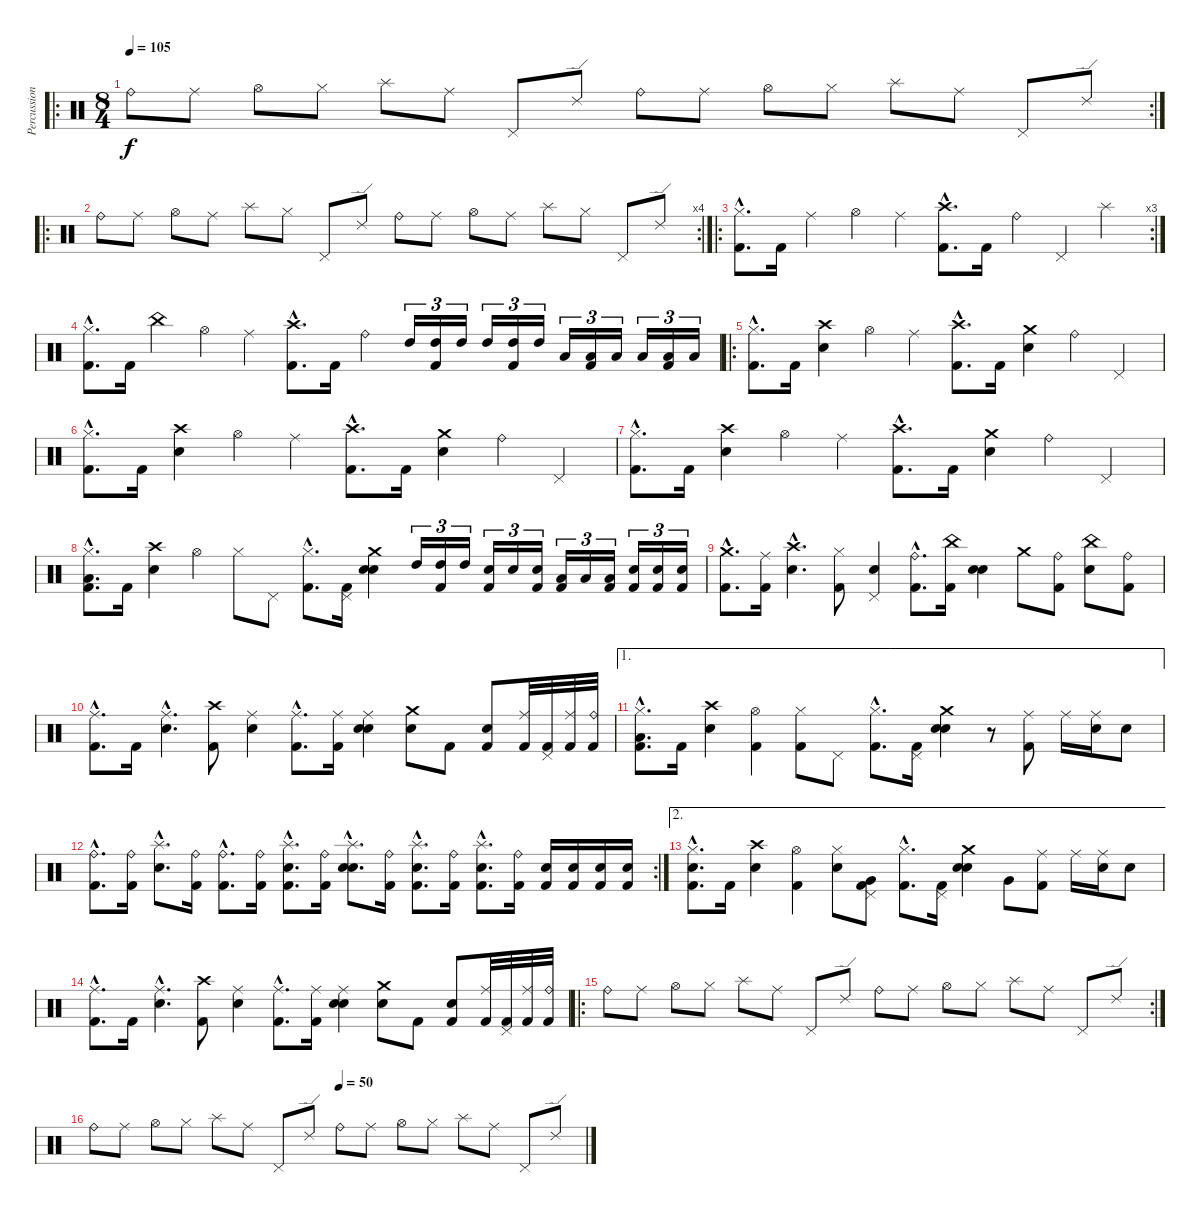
\track ("Percussions" "Percussion") {instrument percussion}
\staff {score}
\articulation defaults
\ro
\rc 2
\ts (8 4)
\tempo 105
\clef neutral
\ks c "Ride (bell)".8{dy f balance 0} "Ride (middle)".8{balance 16} "Hi-Hat (open)".8 "Hi-Hat (closed)".8 "Splash (hit)".8 "Ride (middle)".8 "Pedal Hi-Hat (hit)".8 "Ride (edge) 2".8 "Ride (bell)".8{balance 0} "Ride (middle)".8{balance 16} "Hi-Hat (open)".8 "Hi-Hat (closed)".8 "Splash (hit)".8 "Ride (middle)".8 "Pedal Hi-Hat (hit)".8 "Ride (edge) 2".8
|
\ro
\rc 4 "Ride (bell)".8{balance 0} "Ride (middle)".8{balance 16} "Hi-Hat (open)".8 "Ride (middle)".8 "Splash (hit)".8 "Hi-Hat (closed)".8 "Pedal Hi-Hat (hit)".8 "Ride (edge) 2".8 "Ride (bell)".8{balance 0} "Ride (middle)".8{balance 16} "Hi-Hat (open)".8 "Ride (middle)".8 "Splash (hit)".8 "Hi-Hat (closed)".8 "Pedal Hi-Hat (hit)".8 "Ride (edge) 2".8
|
\ro
\rc 3
("Hi-Hat (closed)"{hac} "Kick (hit) 2"{hac}).8{d balance 8} "Kick (hit) 2".16 "Ride (middle)".4 "Hi-Hat (open)".4 "Ride (middle)".4 ("Crash high (hit)"{hac} "Kick (hit) 2"{hac}).8{d} "Kick (hit) 2".16 "Ride (bell)".4 "Pedal Hi-Hat (hit)".4 "Splash (hit)".4 |
("Hi-Hat (closed)"{hac} "Kick (hit) 2"{hac}).8{d volume 12} "Kick (hit) 2".16 "China (hit)".4 "Hi-Hat (open)".4 "Ride (middle)".4 ("Crash high (hit)"{hac} "Kick (hit) 2"{hac}).8{d} "Kick (hit) 2".16 "Ride (bell)".4 "High Tom (hit)".16{tu (3 2)} ("High Tom (hit)" "Kick (hit) 2").16{tu (3 2)} "High Tom (hit)".16{tu (3 2)} "High Tom (hit)".16{tu (3 2)} ("High Tom (hit)" "Kick (hit) 2").16{tu (3 2)} "High Tom (hit)".16{tu (3 2)} "Low Floor Tom (hit)".16{tu (3 2)} ("Low Floor Tom (hit)" "Kick (hit) 2").16{tu (3 2)} "Low Floor Tom (hit)".16{tu (3 2)} "Low Floor Tom (hit)".16{tu (3 2)} ("Low Floor Tom (hit)" "Kick (hit) 2").16{tu (3 2)} "Low Floor Tom (hit)".16{tu (3 2)} |
\ro
("Hi-Hat (closed)"{hac} "Kick (hit) 2"{hac}).8{d volume 12} "Kick (hit) 2".16 ("Crash high (hit)" "Electric Snare (hit)").4 "Hi-Hat (open)".4 "Ride (middle)".4 ("Crash high (hit)"{hac} "Kick (hit) 2"{hac}).8{d} "Kick (hit) 2".16 ("Crash medium (hit)" "Electric Snare (hit)").4 "Ride (bell)".4 "Pedal Hi-Hat (hit)".4 |
("Hi-Hat (closed)"{hac} "Kick (hit) 2"{hac}).8{d} "Kick (hit) 2".16 ("Crash high (hit)" "Electric Snare (hit)").4 "Hi-Hat (open)".4 "Ride (middle)".4 ("Crash high (hit)"{hac} "Kick (hit) 2"{hac}).8{d} "Kick (hit) 2".16 ("Crash medium (hit)" "Electric Snare (hit)").4 "Ride (bell)".4 "Pedal Hi-Hat (hit)".4 |
("Hi-Hat (closed)"{hac} "Kick (hit) 2"{hac}).8{d} "Kick (hit) 2".16 ("Crash high (hit)" "Electric Snare (hit)").4 "Hi-Hat (open)".4 "Ride (middle)".4 ("Crash high (hit)"{hac} "Kick (hit) 2"{hac}).8{d} "Kick (hit) 2".16 ("Crash medium (hit)" "Electric Snare (hit)").4 "Ride (bell)".4 "Pedal Hi-Hat (hit)".4 |
("Hi-Hat (closed)"{hac} "Low Tom (hit)"{hac} "Kick (hit) 2"{hac}).8{d} "Kick (hit) 2".16 ("Crash high (hit)" "Electric Snare (hit)").4 "Hi-Hat (open)".4 "Hi-Hat (closed)".8 "Pedal Hi-Hat (hit)".8 ("Hi-Hat (closed)"{hac} "Kick (hit) 2"{hac}).8{d} ("Pedal Hi-Hat (hit)" "Kick (hit) 2").16 ("Crash medium (hit)" "Electric Snare (hit)" "Electric Snare (hit)").4 "High Tom (hit)".16{tu (3 2)} ("High Tom (hit)" "Kick (hit) 2").16{tu (3 2)} "High Tom (hit)".16{tu (3 2)} ("Electric Snare (hit)" "Kick (hit) 2").16{tu (3 2)} "Electric Snare (hit)".16{tu (3 2)} ("Electric Snare (hit)" "Kick (hit) 2").16{tu (3 2)} ("Low Floor Tom (hit)" "Kick (hit) 2").16{tu (3 2)} "Low Floor Tom (hit)".16{tu (3 2)} ("Low Floor Tom (hit)" "Kick (hit) 2").16{tu (3 2)} ("Electric Snare (hit)" "Kick (hit) 2").16{tu (3 2)} ("Electric Snare (hit)" "Kick (hit) 2").16{tu (3 2)} ("Electric Snare (hit)" "Kick (hit) 2").16{tu (3 2)} |
("Crash medium (hit)"{hac} "Kick (hit) 2"{hac}).8{d} ("Ride (middle)" "Kick (hit) 2").16 ("Crash high (hit)"{hac} "Electric Snare (hit)"{hac}).4{d} ("Hi-Hat (closed)" "Kick (hit) 2").8 ("Pedal Hi-Hat (hit)" "Electric Snare (hit)").4 ("Ride (bell)"{hac} "Kick (hit) 2"{hac}).8{d} ("China (hit)" "Kick (hit) 2").16 ("Electric Snare (hit)" "Electric Snare (hit)").4 "Crash medium (hit)".8 ("Ride (bell)" "Kick (hit) 2").8 ("China (hit)" "Electric Snare (hit)").8 ("Ride (bell)" "Kick (hit) 2").8 |
("Ride (middle)"{hac} "Kick (hit) 2"{hac}).8{d} "Kick (hit) 2".16 ("Ride (middle)"{hac} "Electric Snare (hit)"{hac}).4{d} ("Crash high (hit)" "Kick (hit) 2").8 ("Ride (middle)" "Electric Snare (hit)").4 ("Ride (middle)"{hac} "Kick (hit) 2"{hac}).8{d} ("Ride (middle)" "Kick (hit) 2").16 ("Ride (middle)" "Electric Snare (hit)" "Electric Snare (hit)").4 ("Crash medium (hit)" "Electric Snare (hit)").8 "Kick (hit) 2".8 ("Electric Snare (hit)" "Kick (hit) 2").8 ("Ride (middle)" "Kick (hit) 2").32 ("Pedal Hi-Hat (hit)" "Kick (hit) 2").32 ("Ride (middle)" "Kick (hit) 2").32 ("Ride (bell)" "Kick (hit) 2").32 |
\ae 1
("Hi-Hat (closed)"{hac} "Low Tom (hit)"{hac} "Kick (hit) 2"{hac}).8{d} "Kick (hit) 2".16 ("Crash high (hit)" "Electric Snare (hit)").4 ("Hi-Hat (open)" "Kick (hit) 2").4 ("Hi-Hat (closed)" "Kick (hit) 2").8 "Pedal Hi-Hat (hit)".8 ("Hi-Hat (closed)"{hac} "Kick (hit) 2"{hac}).8{d} ("Pedal Hi-Hat (hit)" "Kick (hit) 2").16 ("Crash medium (hit)" "Electric Snare (hit)" "Electric Snare (hit)").4 r.8 ("Ride (middle)" "Kick (hit) 2").8 "Ride (middle)".16 ("Electric Snare (hit)" "Ride (middle)").16 "Electric Snare (hit)".8 |
\rc 2
("Ride (bell)"{hac} "Kick (hit) 2"{hac}).8{d} ("Ride (bell)" "Kick (hit) 2").16 ("Splash (hit)"{hac} "Electric Snare (hit)"{hac}).8{d} ("Ride (bell)" "Kick (hit) 2").16 ("Ride (bell)"{hac} "Kick (hit) 2"{hac}).8{d} ("Ride (bell)" "Kick (hit) 2").16 ("Splash (hit)"{hac} "Electric Snare (hit)"{hac} "Kick (hit) 2"{hac}).8{d} ("Ride (bell)" "Kick (hit) 2").16 ("Splash (hit)"{hac} "Electric Snare (hit)"{hac} "Electric Snare (hit)"{hac}).8{d} ("Ride (bell)" "Kick (hit) 2").16 ("Splash (hit)"{hac} "Electric Snare (hit)"{hac} "Kick (hit) 2").8{d} ("Ride (bell)" "Kick (hit) 2").16 ("Splash (hit)"{hac} "Electric Snare (hit)"{hac} "Kick (hit) 2"{hac}).8{d} ("Ride (bell)" "Kick (hit) 2").16 ("Electric Snare (hit)" "Kick (hit) 2").16{volume 16} ("Electric Snare (hit)" "Kick (hit) 2").16 ("Electric Snare (hit)" "Kick (hit) 2").16 ("Electric Snare (hit)" "Kick (hit) 2").16 |
\ae 2
("Hi-Hat (closed)"{hac} "Electric Snare (hit)"{hac} "Kick (hit) 2"{hac}).8{d} "Kick (hit) 2".16 ("Crash high (hit)" "Electric Snare (hit)").4 ("Hi-Hat (open)" "Kick (hit) 2").4 ("Hi-Hat (closed)" "Electric Snare (hit)").8 ("Pedal Hi-Hat (hit)" "Very Low Tom (hit)" "Kick (hit) 2").8 ("Hi-Hat (closed)"{hac} "Kick (hit) 2"{hac}).8{d} ("Pedal Hi-Hat (hit)" "Kick (hit) 2").16 ("Crash medium (hit)" "Electric Snare (hit)" "Electric Snare (hit)").4 "Very Low Tom (hit)".8 ("Ride (middle)" "Kick (hit) 2").8 "Ride (middle)".16 ("Electric Snare (hit)" "Ride (middle)").16 "Electric Snare (hit)".8 |
("Ride (middle)"{hac} "Kick (hit) 2"{hac}).8{d} "Kick (hit) 2".16 ("Ride (middle)"{hac} "Electric Snare (hit)"{hac}).4{d} ("Crash high (hit)" "Kick (hit) 2").8 ("Ride (middle)" "Electric Snare (hit)").4 ("Ride (middle)"{hac} "Kick (hit) 2"{hac}).8{d} ("Ride (middle)" "Kick (hit) 2").16 ("Ride (middle)" "Electric Snare (hit)" "Electric Snare (hit)").4 ("Crash medium (hit)" "Electric Snare (hit)").8 "Kick (hit) 2".8 ("Electric Snare (hit)" "Kick (hit) 2").8 ("Ride (middle)" "Kick (hit) 2").32 ("Pedal Hi-Hat (hit)" "Kick (hit) 2").32 ("Ride (middle)" "Kick (hit) 2").32 ("Ride (bell)" "Kick (hit) 2").32 |
\ro
\rc 2 "Ride (bell)".8 "Ride (middle)".8 "Hi-Hat (open)".8 "Hi-Hat (closed)".8 "Splash (hit)".8 "Ride (middle)".8 "Pedal Hi-Hat (hit)".8 "Ride (edge) 2".8 "Ride (bell)".8 "Ride (middle)".8 "Hi-Hat (open)".8 "Hi-Hat (closed)".8 "Splash (hit)".8 "Ride (middle)".8 "Pedal Hi-Hat (hit)".8 "Ride (edge) 2".8
|
\tempo (50 0.5)
"Ride (bell)".8 "Ride (middle)".8 "Hi-Hat (open)".8 "Hi-Hat (closed)".8 "Splash (hit)".8 "Ride (middle)".8 "Pedal Hi-Hat (hit)".8 "Ride (edge) 2".8 "Ride (bell)".8 "Ride (middle)".8 "Hi-Hat (open)".8 "Hi-Hat (closed)".8 "Splash (hit)".8 "Ride (middle)".8 "Pedal Hi-Hat (hit)".8 "Ride (edge) 2".8
